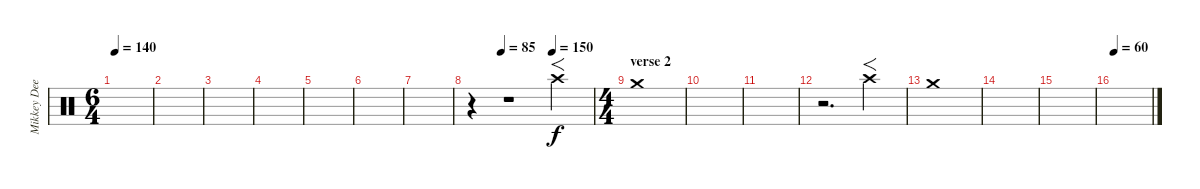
\track ("Mikkey Dee" "Mikkey Dee") {instrument percussion}
\staff {score}
\articulation defaults
\ts (6 4)
\tempo 140
\clef neutral
\ks c
|
|
|
|
|
|
|
\tempo (85 0.25)
\tempo (150 0.6666666666666666)
r.4 r.1 "Crash high (hit)".4{f} |
\ts (4 4)
\section ("" "verse 2")
"Crash medium (hit)".1 |
|
|
r.2{d} "Crash high (hit)".4{f} |
"Crash medium (hit)".1 |
|
|
\tempo 60
